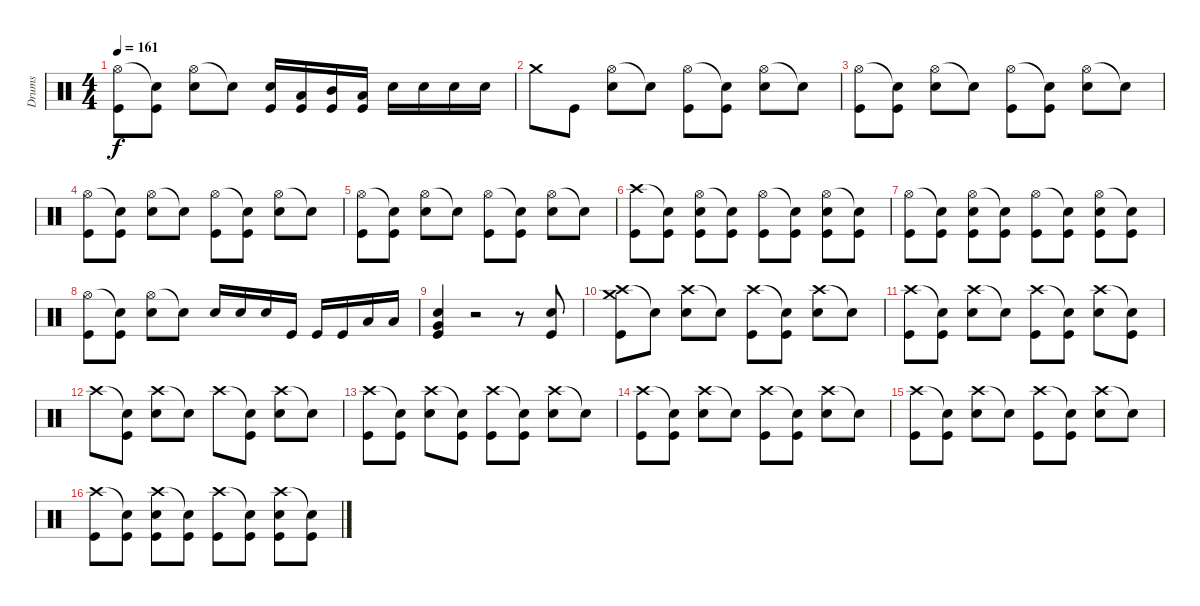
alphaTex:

\track ("Drums" "Drums") {instrument percussion}
\staff {score}
\articulation defaults
\ts (4 4)
\tempo 161
\clef neutral
\ks c
("Hi-Hat (open)" "Kick (hit)").8{dy f} ("Snare (hit)"{t} "Kick (hit)").8 ("Hi-Hat (open)" "Snare (hit) 2").8 "Snare (hit)"{t}.8 ("Snare (hit) 2" "Kick (hit)").16 ("Low Tom (hit)" "Kick (hit)").16 ("Mid Tom (hit)" "Kick (hit)").16 ("Low Tom (hit)" "Kick (hit)").16 "Snare (hit) 2".16 "Snare (hit) 2".16 "Snare (hit) 2".16 "Snare (hit) 2".16 |
"Crash medium (hit)".8 "Kick (hit)".8 ("Hi-Hat (open)" "Snare (hit) 2").8 "Snare (hit)"{t}.8 ("Hi-Hat (open)" "Kick (hit)").8 ("Snare (hit)"{t} "Kick (hit)").8 ("Hi-Hat (open)" "Snare (hit) 2").8 "Snare (hit)"{t}.8 |
("Hi-Hat (open)" "Kick (hit)").8 ("Snare (hit)"{t} "Kick (hit)").8 ("Hi-Hat (open)" "Snare (hit) 2").8 "Snare (hit)"{t}.8 ("Hi-Hat (open)" "Kick (hit)").8 ("Snare (hit)"{t} "Kick (hit)").8 ("Hi-Hat (open)" "Snare (hit) 2").8 "Snare (hit)"{t}.8 |
("Hi-Hat (open)" "Kick (hit)").8 ("Snare (hit)"{t} "Kick (hit)").8 ("Hi-Hat (open)" "Snare (hit) 2").8 "Snare (hit)"{t}.8 ("Hi-Hat (open)" "Kick (hit)").8 ("Snare (hit)"{t} "Kick (hit)").8 ("Hi-Hat (open)" "Snare (hit) 2").8 "Snare (hit)"{t}.8 |
("Hi-Hat (open)" "Kick (hit)").8 ("Snare (hit)"{t} "Kick (hit)").8 ("Hi-Hat (open)" "Snare (hit) 2").8 "Snare (hit)"{t}.8 ("Hi-Hat (open)" "Kick (hit)").8 ("Snare (hit)"{t} "Kick (hit)").8 ("Hi-Hat (open)" "Snare (hit) 2").8 "Snare (hit)"{t}.8 |
("Crash high (hit)" "Kick (hit)").8 ("Snare (hit)"{t} "Kick (hit)").8 ("Hi-Hat (open)" "Snare (hit) 2" "Kick (hit)").8 ("Snare (hit)"{t} "Kick (hit)").8 ("Hi-Hat (open)" "Kick (hit)").8 ("Snare (hit)"{t} "Kick (hit)").8 ("Hi-Hat (open)" "Snare (hit) 2" "Kick (hit)").8 ("Snare (hit)"{t} "Kick (hit)").8 |
("Hi-Hat (open)" "Kick (hit)").8 ("Snare (hit)"{t} "Kick (hit)").8 ("Hi-Hat (open)" "Snare (hit) 2" "Kick (hit)").8 ("Snare (hit)"{t} "Kick (hit)").8 ("Hi-Hat (open)" "Kick (hit)").8 ("Snare (hit)"{t} "Kick (hit)").8 ("Hi-Hat (open)" "Snare (hit) 2" "Kick (hit)").8 ("Snare (hit)"{t} "Kick (hit)").8 |
("Hi-Hat (open)" "Kick (hit)").8 ("Snare (hit)"{t} "Kick (hit)").8 ("Hi-Hat (open)" "Snare (hit) 2").8 "Snare (hit)"{t}.8 "Snare (hit) 2".16 "Snare (hit) 2".16 "Snare (hit) 2".16 "Kick (hit)".16 "Kick (hit)".16 "Kick (hit)".16 "Low Tom (hit)".16 "Low Tom (hit)".16 |
("Very Low Tom (hit)" "Snare (hit) 2" "Kick (hit)").4 r.2 r.8 ("Snare (hit) 2" "Kick (hit)").8 |
("Crash high (hit)" "Crash medium (hit)" "Kick (hit)").8 "Snare (hit)"{t}.8 ("Crash high (hit)" "Snare (hit) 2").8 "Snare (hit)"{t}.8 ("Crash high (hit)" "Kick (hit)").8 ("Snare (hit)"{t} "Kick (hit)").8 ("Crash high (hit)" "Snare (hit) 2").8 "Snare (hit)"{t}.8 |
("Crash high (hit)" "Kick (hit)").8 ("Snare (hit)"{t} "Kick (hit)").8 ("Crash high (hit)" "Snare (hit) 2").8 "Snare (hit)"{t}.8 ("Crash high (hit)" "Kick (hit)").8 ("Snare (hit)"{t} "Kick (hit)").8 ("Crash high (hit)" "Snare (hit) 2").8 ("Snare (hit)"{t} "Kick (hit)").8 |
"Crash high (hit)".8 ("Snare (hit)"{t} "Kick (hit)").8 ("Crash high (hit)" "Snare (hit) 2").8 "Snare (hit)"{t}.8 "Crash high (hit)".8 ("Snare (hit)"{t} "Kick (hit)").8 ("Crash high (hit)" "Snare (hit) 2").8 "Snare (hit)"{t}.8 |
("Crash high (hit)" "Kick (hit)").8 ("Snare (hit)"{t} "Kick (hit)").8 ("Crash high (hit)" "Snare (hit) 2").8 ("Snare (hit)"{t} "Kick (hit)").8 ("Crash high (hit)" "Kick (hit)").8 ("Snare (hit)"{t} "Kick (hit)").8 ("Crash high (hit)" "Snare (hit) 2").8 "Snare (hit)"{t}.8 |
("Crash high (hit)" "Kick (hit)").8 ("Snare (hit)"{t} "Kick (hit)").8 ("Crash high (hit)" "Snare (hit) 2").8 "Snare (hit)"{t}.8 ("Crash high (hit)" "Kick (hit)").8 ("Snare (hit)"{t} "Kick (hit)").8 ("Crash high (hit)" "Snare (hit) 2").8 "Snare (hit)"{t}.8 |
("Crash high (hit)" "Kick (hit)").8 ("Snare (hit)"{t} "Kick (hit)").8 ("Crash high (hit)" "Snare (hit) 2").8 "Snare (hit)"{t}.8 ("Crash high (hit)" "Kick (hit)").8 ("Snare (hit)"{t} "Kick (hit)").8 ("Crash high (hit)" "Snare (hit) 2").8 "Snare (hit)"{t}.8 |
("Crash high (hit)" "Kick (hit)").8 ("Snare (hit)"{t} "Kick (hit)").8 ("Crash high (hit)" "Snare (hit) 2" "Kick (hit)").8 ("Snare (hit)"{t} "Kick (hit)").8 ("Crash high (hit)" "Kick (hit)").8 ("Snare (hit)"{t} "Kick (hit)").8 ("Crash high (hit)" "Snare (hit) 2" "Kick (hit)").8 ("Snare (hit)"{t} "Kick (hit)").8
